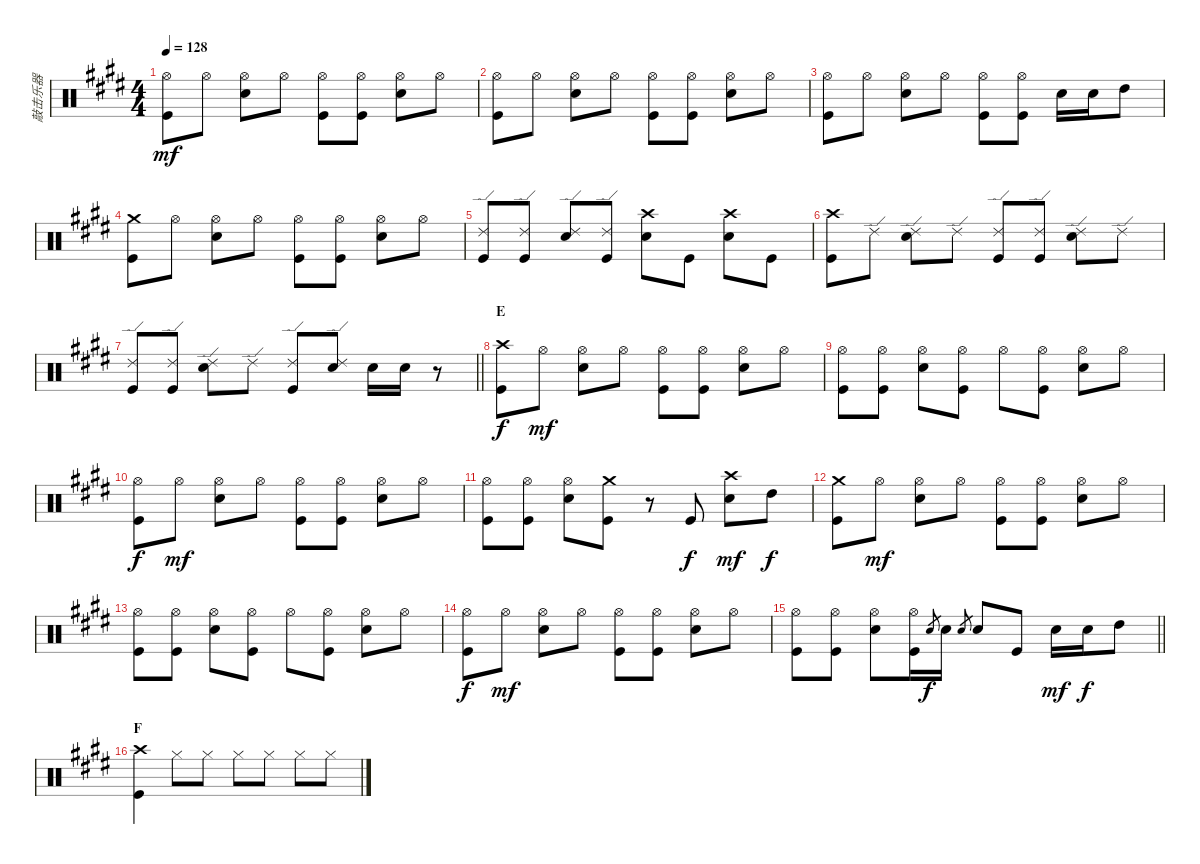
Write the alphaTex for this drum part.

\track ("敲击乐器" "敲击乐器") {instrument percussion}
\staff {score}
\articulation defaults
\ts (4 4)
\tempo 128
\clef neutral
\ks e
("Hi-Hat (open)" "Kick (hit)").8{dy mf} "Hi-Hat (open)".8 ("Hi-Hat (open)" "Snare (hit) 2").8 "Hi-Hat (open)".8 ("Hi-Hat (open)" "Kick (hit)").8 ("Hi-Hat (open)" "Kick (hit)").8 ("Hi-Hat (open)" "Snare (hit) 2").8 "Hi-Hat (open)".8 |
("Hi-Hat (open)" "Kick (hit)").8 "Hi-Hat (open)".8 ("Hi-Hat (open)" "Snare (hit) 2").8 "Hi-Hat (open)".8 ("Hi-Hat (open)" "Kick (hit)").8 ("Hi-Hat (open)" "Kick (hit)").8 ("Hi-Hat (open)" "Snare (hit) 2").8 "Hi-Hat (open)".8 |
("Hi-Hat (open)" "Kick (hit)").8 "Hi-Hat (open)".8 ("Hi-Hat (open)" "Snare (hit) 2").8 "Hi-Hat (open)".8 ("Hi-Hat (open)" "Kick (hit)").8 ("Hi-Hat (open)" "Kick (hit)").8 "Snare (hit) 2".16 "Snare (hit) 2".16 "High Tom (hit)".8 |
("Crash medium (hit)" "Kick (hit)").8 "Hi-Hat (open)".8 ("Hi-Hat (open)" "Snare (hit) 2").8 "Hi-Hat (open)".8 ("Hi-Hat (open)" "Kick (hit)").8 ("Hi-Hat (open)" "Kick (hit)").8 ("Hi-Hat (open)" "Snare (hit) 2").8 "Hi-Hat (open)".8 |
("Ride (edge) 2" "Kick (hit)").8 ("Ride (edge) 2" "Kick (hit)").8 ("Ride (edge) 2" "Snare (hit) 2").8 ("Ride (edge) 2" "Kick (hit)").8 ("Crash high (hit)" "Snare (hit) 2").8 "Kick (hit)".8 ("Crash high (hit)" "Snare (hit) 2").8 "Kick (hit)".8 |
("Crash high (hit)" "Kick (hit)").8 "Ride (edge) 2".8 ("Ride (edge) 2" "Snare (hit) 2").8 "Ride (edge) 2".8 ("Ride (edge) 2" "Kick (hit)").8 ("Ride (edge) 2" "Kick (hit)").8 ("Ride (edge) 2" "Snare (hit) 2").8 "Ride (edge) 2".8 |
\barLineRight lightlight
("Ride (edge) 2" "Kick (hit)").8 ("Ride (edge) 2" "Kick (hit)").8 ("Ride (edge) 2" "Snare (hit) 2").8 "Ride (edge) 2".8 ("Ride (edge) 2" "Kick (hit)").8 ("Ride (edge) 2" "Snare (hit) 2").8 "Snare (hit) 2".16 "Snare (hit) 2".16 r.8 |
\section ("" "E")
("Crash high (hit)" "Kick (hit)").8{dy f} "Hi-Hat (open)".8{dy mf} ("Hi-Hat (open)" "Snare (hit) 2").8 "Hi-Hat (open)".8 ("Hi-Hat (open)" "Kick (hit)").8 ("Hi-Hat (open)" "Kick (hit)").8 ("Hi-Hat (open)" "Snare (hit) 2").8 "Hi-Hat (open)".8 |
("Hi-Hat (open)" "Kick (hit)").8 ("Hi-Hat (open)" "Kick (hit)").8 ("Hi-Hat (open)" "Snare (hit) 2").8 ("Hi-Hat (open)" "Kick (hit)").8 "Hi-Hat (open)".8 ("Hi-Hat (open)" "Kick (hit)").8 ("Hi-Hat (open)" "Snare (hit) 2").8 "Hi-Hat (open)".8 |
("Hi-Hat (open)" "Kick (hit)").8{dy f} "Hi-Hat (open)".8{dy mf} ("Hi-Hat (open)" "Snare (hit) 2").8 "Hi-Hat (open)".8 ("Hi-Hat (open)" "Kick (hit)").8 ("Hi-Hat (open)" "Kick (hit)").8 ("Hi-Hat (open)" "Snare (hit) 2").8 "Hi-Hat (open)".8 |
("Hi-Hat (open)" "Kick (hit)").8 ("Hi-Hat (open)" "Kick (hit)").8 ("Hi-Hat (open)" "Snare (hit) 2").8 ("Crash medium (hit)" "Kick (hit)").8 r.8 "Kick (hit)".8{dy f} ("Crash high (hit)" "Snare (hit) 2").8{dy mf} "High Tom (hit)".8{dy f} |
("Crash medium (hit)" "Kick (hit)").8 "Hi-Hat (open)".8{dy mf} ("Hi-Hat (open)" "Snare (hit) 2").8 "Hi-Hat (open)".8 ("Hi-Hat (open)" "Kick (hit)").8 ("Hi-Hat (open)" "Kick (hit)").8 ("Hi-Hat (open)" "Snare (hit) 2").8 "Hi-Hat (open)".8 |
("Hi-Hat (open)" "Kick (hit)").8 ("Hi-Hat (open)" "Kick (hit)").8 ("Hi-Hat (open)" "Snare (hit) 2").8 ("Hi-Hat (open)" "Kick (hit)").8 "Hi-Hat (open)".8 ("Hi-Hat (open)" "Kick (hit)").8 ("Hi-Hat (open)" "Snare (hit) 2").8 "Hi-Hat (open)".8 |
("Hi-Hat (open)" "Kick (hit)").8{dy f} "Hi-Hat (open)".8{dy mf} ("Hi-Hat (open)" "Snare (hit) 2").8 "Hi-Hat (open)".8 ("Hi-Hat (open)" "Kick (hit)").8 ("Hi-Hat (open)" "Kick (hit)").8 ("Hi-Hat (open)" "Snare (hit) 2").8 "Hi-Hat (open)".8 |
\barLineRight lightlight
("Hi-Hat (open)" "Kick (hit)").8 ("Hi-Hat (open)" "Kick (hit)").8 ("Hi-Hat (open)" "Snare (hit) 2").8 ("Hi-Hat (open)" "Kick (hit)").16 "Snare (hit) 2".8{gr dy f} "Snare (hit) 2".16 "Snare (hit) 2".8{gr} "Snare (hit) 2".8 "Kick (hit)".8 "Snare (hit) 2".16{dy mf} "Snare (hit) 2".16{dy f} "High Tom (hit)".8 |
\section ("" "F")
("Crash high (hit)" "Kick (hit)").4 "Hi-Hat (closed)".8 "Hi-Hat (closed)".8 "Hi-Hat (closed)".8 "Hi-Hat (closed)".8 "Hi-Hat (closed)".8 "Hi-Hat (closed)".8
